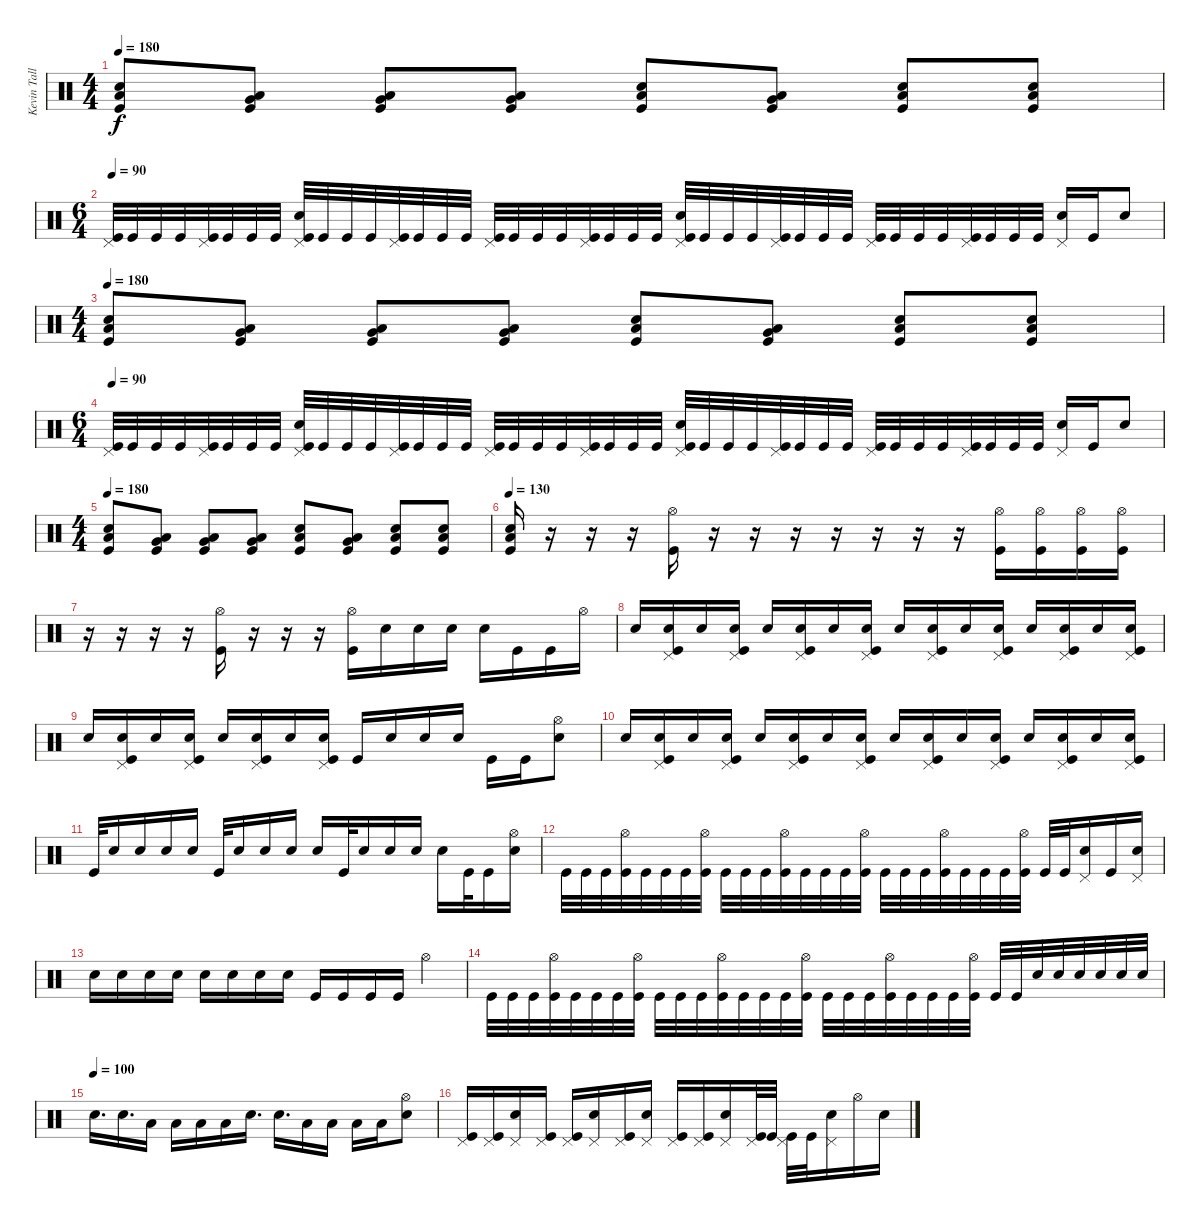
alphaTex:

\track ("Kevin Talley" "Kevin Tall") {instrument percussion}
\staff
\articulation defaults
\ts (4 4)
\tempo 180
\clef neutral
\ks c
("Snare (hit) 2" "Low Floor Tom (hit)" "Kick (hit)").8{dy f} ("Very Low Tom (hit)" "Low Floor Tom (hit)" "Kick (hit)").8 ("Very Low Tom (hit)" "Low Floor Tom (hit)" "Kick (hit)").8 ("Very Low Tom (hit)" "Low Floor Tom (hit)" "Kick (hit)").8 ("Snare (hit) 2" "Low Floor Tom (hit)" "Kick (hit)").8 ("Very Low Tom (hit)" "Low Floor Tom (hit)" "Kick (hit)").8 ("Snare (hit) 2" "Low Floor Tom (hit)" "Kick (hit)").8 ("Snare (hit) 2" "Low Floor Tom (hit)" "Kick (hit)").8 |
\ts (6 4)
\tempo 90
("Pedal Hi-Hat (hit)" "Kick (hit)").32 "Kick (hit)".32 "Kick (hit)".32 "Kick (hit)".32 ("Pedal Hi-Hat (hit)" "Kick (hit)").32 "Kick (hit)".32 "Kick (hit)".32 "Kick (hit)".32 ("Pedal Hi-Hat (hit)" "Snare (hit) 2" "Kick (hit)").32 "Kick (hit)".32 "Kick (hit)".32 "Kick (hit)".32 ("Pedal Hi-Hat (hit)" "Kick (hit)").32 "Kick (hit)".32 "Kick (hit)".32 "Kick (hit)".32 ("Pedal Hi-Hat (hit)" "Kick (hit)").32 "Kick (hit)".32 "Kick (hit)".32 "Kick (hit)".32 ("Pedal Hi-Hat (hit)" "Kick (hit)").32 "Kick (hit)".32 "Kick (hit)".32 "Kick (hit)".32 ("Pedal Hi-Hat (hit)" "Snare (hit) 2" "Kick (hit)").32 "Kick (hit)".32 "Kick (hit)".32 "Kick (hit)".32 ("Pedal Hi-Hat (hit)" "Kick (hit)").32 "Kick (hit)".32 "Kick (hit)".32 "Kick (hit)".32 ("Pedal Hi-Hat (hit)" "Kick (hit)").32 "Kick (hit)".32 "Kick (hit)".32 "Kick (hit)".32 ("Pedal Hi-Hat (hit)" "Kick (hit)").32 "Kick (hit)".32 "Kick (hit)".32 "Kick (hit)".32 ("Pedal Hi-Hat (hit)" "Snare (hit) 2").16 "Kick (hit)".16 "Snare (hit) 2".8 |
\ts (4 4)
\tempo 180
("Snare (hit) 2" "Low Floor Tom (hit)" "Kick (hit)").8 ("Very Low Tom (hit)" "Low Floor Tom (hit)" "Kick (hit)").8 ("Very Low Tom (hit)" "Low Floor Tom (hit)" "Kick (hit)").8 ("Very Low Tom (hit)" "Low Floor Tom (hit)" "Kick (hit)").8 ("Snare (hit) 2" "Low Floor Tom (hit)" "Kick (hit)").8 ("Very Low Tom (hit)" "Low Floor Tom (hit)" "Kick (hit)").8 ("Snare (hit) 2" "Low Floor Tom (hit)" "Kick (hit)").8 ("Snare (hit) 2" "Low Floor Tom (hit)" "Kick (hit)").8 |
\ts (6 4)
\tempo 90
("Pedal Hi-Hat (hit)" "Kick (hit)").32 "Kick (hit)".32 "Kick (hit)".32 "Kick (hit)".32 ("Pedal Hi-Hat (hit)" "Kick (hit)").32 "Kick (hit)".32 "Kick (hit)".32 "Kick (hit)".32 ("Pedal Hi-Hat (hit)" "Snare (hit) 2" "Kick (hit)").32 "Kick (hit)".32 "Kick (hit)".32 "Kick (hit)".32 ("Pedal Hi-Hat (hit)" "Kick (hit)").32 "Kick (hit)".32 "Kick (hit)".32 "Kick (hit)".32 ("Pedal Hi-Hat (hit)" "Kick (hit)").32 "Kick (hit)".32 "Kick (hit)".32 "Kick (hit)".32 ("Pedal Hi-Hat (hit)" "Kick (hit)").32 "Kick (hit)".32 "Kick (hit)".32 "Kick (hit)".32 ("Pedal Hi-Hat (hit)" "Snare (hit) 2" "Kick (hit)").32 "Kick (hit)".32 "Kick (hit)".32 "Kick (hit)".32 ("Pedal Hi-Hat (hit)" "Kick (hit)").32 "Kick (hit)".32 "Kick (hit)".32 "Kick (hit)".32 ("Pedal Hi-Hat (hit)" "Kick (hit)").32 "Kick (hit)".32 "Kick (hit)".32 "Kick (hit)".32 ("Pedal Hi-Hat (hit)" "Kick (hit)").32 "Kick (hit)".32 "Kick (hit)".32 "Kick (hit)".32 ("Pedal Hi-Hat (hit)" "Snare (hit) 2").16 "Kick (hit)".16 "Snare (hit) 2".8 |
\ts (4 4)
\tempo 180
("Snare (hit) 2" "Low Floor Tom (hit)" "Kick (hit)").8 ("Very Low Tom (hit)" "Low Floor Tom (hit)" "Kick (hit)").8 ("Very Low Tom (hit)" "Low Floor Tom (hit)" "Kick (hit)").8 ("Very Low Tom (hit)" "Low Floor Tom (hit)" "Kick (hit)").8 ("Snare (hit) 2" "Low Floor Tom (hit)" "Kick (hit)").8 ("Very Low Tom (hit)" "Low Floor Tom (hit)" "Kick (hit)").8 ("Snare (hit) 2" "Low Floor Tom (hit)" "Kick (hit)").8 ("Snare (hit) 2" "Low Floor Tom (hit)" "Kick (hit)").8 |
\tempo 130
("Snare (hit) 2" "Low Floor Tom (hit)" "Kick (hit)").16 r.16 r.16 r.16 ("Hi-Hat (open)" "Kick (hit)").16 r.16 r.16 r.16 r.16 r.16 r.16 r.16 ("Hi-Hat (open)" "Kick (hit)").16 ("Hi-Hat (open)" "Kick (hit)").16 ("Hi-Hat (open)" "Kick (hit)").16 ("Hi-Hat (open)" "Kick (hit)").16 |
r.16 r.16 r.16 r.16 ("Hi-Hat (open)" "Kick (hit)").16 r.16 r.16 r.16 ("Hi-Hat (open)" "Kick (hit)").16 "Snare (hit) 2".16 "Snare (hit) 2".16 "Snare (hit) 2".16 "Snare (hit) 2".16 "Kick (hit)".16 "Kick (hit)".16 "Hi-Hat (open)".16 |
"Snare (hit) 2".16 ("Pedal Hi-Hat (hit)" "Snare (hit) 2" "Kick (hit)").16 "Snare (hit) 2".16 ("Pedal Hi-Hat (hit)" "Snare (hit) 2" "Kick (hit)").16 "Snare (hit) 2".16 ("Pedal Hi-Hat (hit)" "Snare (hit) 2" "Kick (hit)").16 "Snare (hit) 2".16 ("Pedal Hi-Hat (hit)" "Snare (hit) 2" "Kick (hit)").16 "Snare (hit) 2".16 ("Pedal Hi-Hat (hit)" "Snare (hit) 2" "Kick (hit)").16 "Snare (hit) 2".16 ("Pedal Hi-Hat (hit)" "Snare (hit) 2" "Kick (hit)").16 "Snare (hit) 2".16 ("Pedal Hi-Hat (hit)" "Snare (hit) 2" "Kick (hit)").16 "Snare (hit) 2".16 ("Pedal Hi-Hat (hit)" "Snare (hit) 2" "Kick (hit)").16 |
"Snare (hit) 2".16 ("Pedal Hi-Hat (hit)" "Snare (hit) 2" "Kick (hit)").16 "Snare (hit) 2".16 ("Pedal Hi-Hat (hit)" "Snare (hit) 2" "Kick (hit)").16 "Snare (hit) 2".16 ("Pedal Hi-Hat (hit)" "Snare (hit) 2" "Kick (hit)").16 "Snare (hit) 2".16 ("Pedal Hi-Hat (hit)" "Snare (hit) 2" "Kick (hit)").16 "Kick (hit)".16 "Snare (hit) 2".16 "Snare (hit) 2".16 "Snare (hit) 2".16 "Kick (hit)".16 "Kick (hit)".16 ("Hi-Hat (open)" "Snare (hit) 2").8 |
"Snare (hit) 2".16 ("Pedal Hi-Hat (hit)" "Snare (hit) 2" "Kick (hit)").16 "Snare (hit) 2".16 ("Pedal Hi-Hat (hit)" "Snare (hit) 2" "Kick (hit)").16 "Snare (hit) 2".16 ("Pedal Hi-Hat (hit)" "Snare (hit) 2" "Kick (hit)").16 "Snare (hit) 2".16 ("Pedal Hi-Hat (hit)" "Snare (hit) 2" "Kick (hit)").16 "Snare (hit) 2".16 ("Pedal Hi-Hat (hit)" "Snare (hit) 2" "Kick (hit)").16 "Snare (hit) 2".16 ("Pedal Hi-Hat (hit)" "Snare (hit) 2" "Kick (hit)").16 "Snare (hit) 2".16 ("Pedal Hi-Hat (hit)" "Snare (hit) 2" "Kick (hit)").16 "Snare (hit) 2".16 ("Pedal Hi-Hat (hit)" "Snare (hit) 2" "Kick (hit)").16 |
"Kick (hit)".32 "Snare (hit) 2".16 "Snare (hit) 2".16 "Snare (hit) 2".16 "Snare (hit) 2".16 "Kick (hit)".32 "Snare (hit) 2".16 "Snare (hit) 2".16 "Snare (hit) 2".16 "Snare (hit) 2".16 "Kick (hit)".32 "Snare (hit) 2".16 "Snare (hit) 2".16 "Snare (hit) 2".16 "Snare (hit) 2".16 "Kick (hit)".32 "Kick (hit)".16 ("Hi-Hat (open)" "Snare (hit) 2").16 |
"Kick (hit)".32 "Kick (hit)".32 "Kick (hit)".32 ("Hi-Hat (open)" "Kick (hit)").32 "Kick (hit)".32 "Kick (hit)".32 "Kick (hit)".32 ("Hi-Hat (open)" "Kick (hit)").32 "Kick (hit)".32 "Kick (hit)".32 "Kick (hit)".32 ("Hi-Hat (open)" "Kick (hit)").32 "Kick (hit)".32 "Kick (hit)".32 "Kick (hit)".32 ("Hi-Hat (open)" "Kick (hit)").32 "Kick (hit)".32 "Kick (hit)".32 "Kick (hit)".32 ("Hi-Hat (open)" "Kick (hit)").32 "Kick (hit)".32 "Kick (hit)".32 "Kick (hit)".32 ("Hi-Hat (open)" "Kick (hit)").32 "Kick (hit)".32 "Kick (hit)".32 ("Pedal Hi-Hat (hit)" "Snare (hit) 2").16 "Kick (hit)".16 ("Pedal Hi-Hat (hit)" "Snare (hit) 2").16 |
"Snare (hit) 2".16 "Snare (hit) 2".16 "Snare (hit) 2".16 "Snare (hit) 2".16 "Snare (hit) 2".16 "Snare (hit) 2".16 "Snare (hit) 2".16 "Snare (hit) 2".16 "Kick (hit)".16 "Kick (hit)".16 "Kick (hit)".16 "Kick (hit)".16 "Hi-Hat (open)".4 |
"Kick (hit)".32 "Kick (hit)".32 "Kick (hit)".32 ("Hi-Hat (open)" "Kick (hit)").32 "Kick (hit)".32 "Kick (hit)".32 "Kick (hit)".32 ("Hi-Hat (open)" "Kick (hit)").32 "Kick (hit)".32 "Kick (hit)".32 "Kick (hit)".32 ("Hi-Hat (open)" "Kick (hit)").32 "Kick (hit)".32 "Kick (hit)".32 "Kick (hit)".32 ("Hi-Hat (open)" "Kick (hit)").32 "Kick (hit)".32 "Kick (hit)".32 "Kick (hit)".32 ("Hi-Hat (open)" "Kick (hit)").32 "Kick (hit)".32 "Kick (hit)".32 "Kick (hit)".32 ("Hi-Hat (open)" "Kick (hit)").32 "Kick (hit)".32 "Kick (hit)".32 "Snare (hit) 2".32 "Snare (hit) 2".32 "Snare (hit) 2".32 "Snare (hit) 2".32 "Snare (hit) 2".32 "Snare (hit) 2".32 |
\tempo (100)
"Snare (hit) 2".16{d} "Snare (hit) 2".16{d} "Low Tom (hit)".16 "Low Tom (hit)".16 "Low Floor Tom (hit)".16 "Low Floor Tom (hit)".16 "Snare (hit) 2".16{d} "Snare (hit) 2".16{d} "Low Tom (hit)".16 "Low Tom (hit)".16 "Low Floor Tom (hit)".16 "Low Floor Tom (hit)".16 ("Hi-Hat (open)" "Snare (hit) 2").8 |
("Pedal Hi-Hat (hit)" "Kick (hit)").16 ("Pedal Hi-Hat (hit)" "Kick (hit)").16 ("Pedal Hi-Hat (hit)" "Snare (hit) 2").16 ("Pedal Hi-Hat (hit)" "Kick (hit)").16 ("Pedal Hi-Hat (hit)" "Kick (hit)").16 ("Pedal Hi-Hat (hit)" "Snare (hit) 2").16 ("Pedal Hi-Hat (hit)" "Kick (hit)").16 ("Pedal Hi-Hat (hit)" "Snare (hit) 2").16 ("Pedal Hi-Hat (hit)" "Kick (hit)").16 ("Pedal Hi-Hat (hit)" "Kick (hit)").16 ("Pedal Hi-Hat (hit)" "Snare (hit) 2").16 ("Pedal Hi-Hat (hit)" "Kick (hit)").32 "Kick (hit)".32 ("Pedal Hi-Hat (hit)" "Kick (hit)").32 "Kick (hit)".32 ("Pedal Hi-Hat (hit)" "Snare (hit) 2").16 "Hi-Hat (open)".16 "Snare (hit) 2".16
